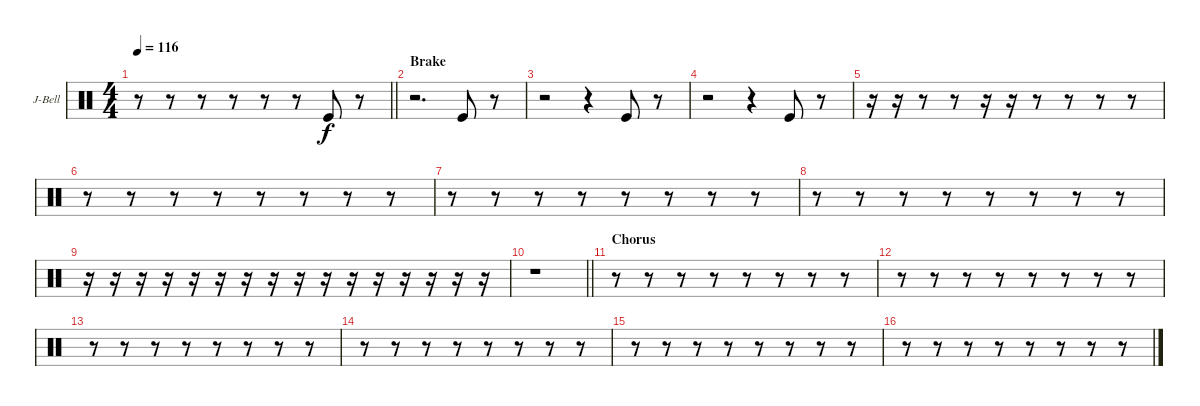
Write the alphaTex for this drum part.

\bracketExtendMode groupsimilarinstruments
\firstSystemTrackNameOrientation horizontal
\otherSystemsTrackNameOrientation horizontal
\track ("Jingle Bell" "J-Bell") {instrument percussion}
\staff {score}
\articulation defaults
\ts (4 4)
\tempo 116
\clef neutral
\barLineRight lightlight
\ks c
r.8{dy f} r.8 r.8 r.8 r.8 r.8 "Kick (hit)".8 r.8 |
\section ("" "Brake")
r.2{d} "Kick (hit)".8 r.8 |
r.2 r.4 "Kick (hit)".8 r.8 |
r.2 r.4 "Kick (hit)".8 r.8 |
r.16 r.16 r.8 r.8 r.16 r.16 r.8 r.8 r.8 r.8 |
r.8 r.8 r.8 r.8 r.8 r.8 r.8 r.8 |
r.8 r.8 r.8 r.8 r.8 r.8 r.8 r.8 |
r.8 r.8 r.8 r.8 r.8 r.8 r.8 r.8 |
r.16 r.16 r.16 r.16 r.16 r.16 r.16 r.16 r.16 r.16 r.16 r.16 r.16 r.16 r.16 r.16 |
\barLineRight lightlight
r.1 |
\section ("" "Chorus")
r.8 r.8 r.8 r.8 r.8 r.8 r.8 r.8 |
r.8 r.8 r.8 r.8 r.8 r.8 r.8 r.8 |
r.8 r.8 r.8 r.8 r.8 r.8 r.8 r.8 |
r.8 r.8 r.8 r.8 r.8 r.8 r.8 r.8 |
r.8 r.8 r.8 r.8 r.8 r.8 r.8 r.8 |
r.8 r.8 r.8 r.8 r.8 r.8 r.8 r.8
